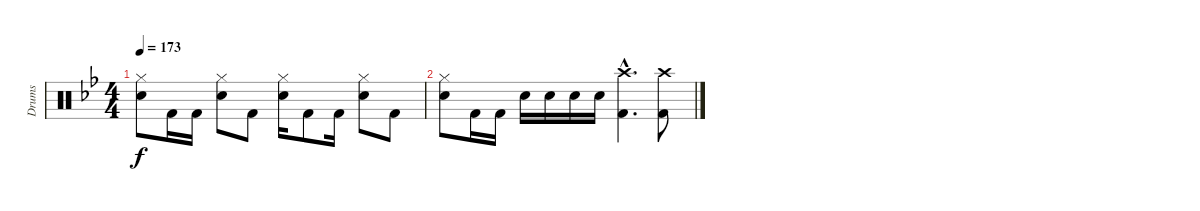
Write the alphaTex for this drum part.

\track ("Drums" "Drums") {instrument percussion}
\staff {score}
\articulation defaults
\ts (4 4)
\tempo 173
\clef neutral
\ks bb
("Hi-Hat (closed)" "Snare (hit) 2").8{dy f} "Kick (hit) 2".16 "Kick (hit) 2".16 ("Hi-Hat (closed)" "Snare (hit) 2").8 "Kick (hit) 2".8 ("Hi-Hat (closed)" "Snare (hit) 2").16 "Kick (hit) 2".8 "Kick (hit) 2".16 ("Hi-Hat (closed)" "Snare (hit) 2").8 "Kick (hit) 2".8 |
("Hi-Hat (closed)" "Snare (hit) 2").8 "Kick (hit) 2".16 "Kick (hit) 2".16 "Snare (hit) 2".16 "Snare (hit) 2".16 "Snare (hit) 2".16 "Snare (hit) 2".16 ("Crash high (hit)"{hac} "Kick (hit) 2"{hac}).4{d} ("Crash high (hit)" "Kick (hit) 2").8
